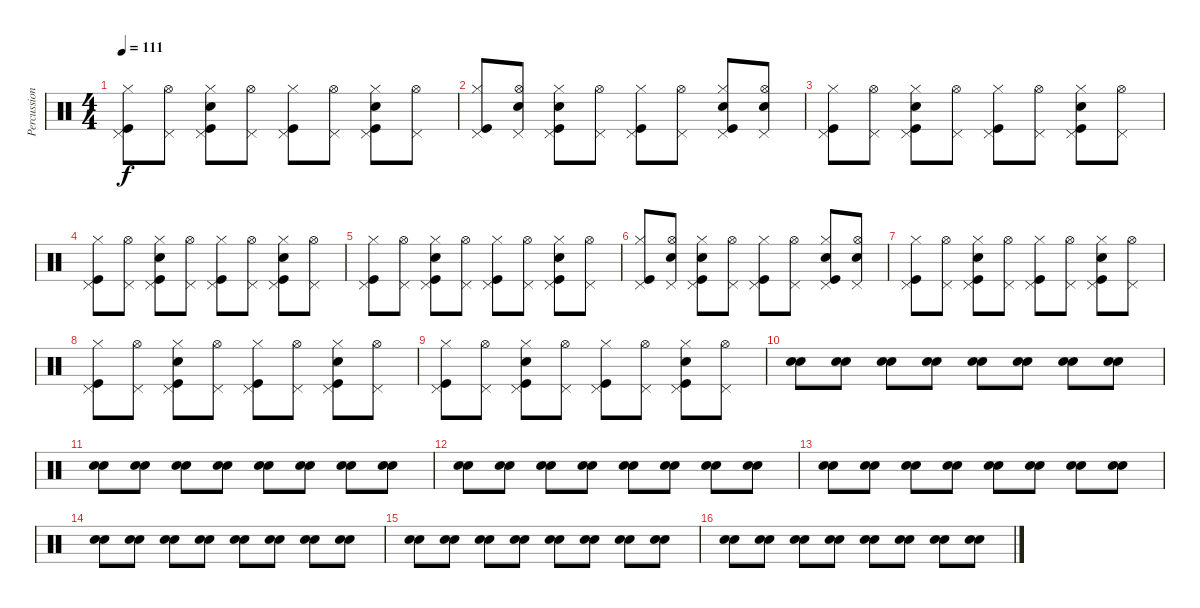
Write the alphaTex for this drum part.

\track ("Percussion" "Percussion") {instrument percussion}
\staff {score}
\articulation defaults
\ts (4 4)
\tempo 111
\clef neutral
\ks c
("Kick (hit)" "Hi-Hat (closed)" "Pedal Hi-Hat (hit)").8{dy f} ("Hi-Hat (open)" "Pedal Hi-Hat (hit)").8 ("Kick (hit)" "Snare (hit) 2" "Hi-Hat (closed)" "Pedal Hi-Hat (hit)").8 ("Hi-Hat (open)" "Pedal Hi-Hat (hit)").8 ("Kick (hit)" "Hi-Hat (closed)" "Pedal Hi-Hat (hit)").8 ("Hi-Hat (open)" "Pedal Hi-Hat (hit)").8 ("Kick (hit)" "Snare (hit) 2" "Hi-Hat (closed)" "Pedal Hi-Hat (hit)").8 ("Hi-Hat (open)" "Pedal Hi-Hat (hit)").8 |
("Kick (hit)" "Hi-Hat (closed)" "Pedal Hi-Hat (hit)").8 ("Snare (hit) 2" "Hi-Hat (open)" "Pedal Hi-Hat (hit)").8 ("Kick (hit)" "Snare (hit) 2" "Hi-Hat (closed)" "Pedal Hi-Hat (hit)").8 ("Hi-Hat (open)" "Pedal Hi-Hat (hit)").8 ("Kick (hit)" "Hi-Hat (closed)" "Pedal Hi-Hat (hit)").8 ("Hi-Hat (open)" "Pedal Hi-Hat (hit)").8 ("Kick (hit)" "Snare (hit) 2" "Hi-Hat (closed)" "Pedal Hi-Hat (hit)").8 ("Snare (hit) 2" "Hi-Hat (open)" "Pedal Hi-Hat (hit)").8 |
("Kick (hit)" "Hi-Hat (closed)" "Pedal Hi-Hat (hit)").8 ("Hi-Hat (open)" "Pedal Hi-Hat (hit)").8 ("Kick (hit)" "Snare (hit) 2" "Hi-Hat (closed)" "Pedal Hi-Hat (hit)").8 ("Hi-Hat (open)" "Pedal Hi-Hat (hit)").8 ("Kick (hit)" "Hi-Hat (closed)" "Pedal Hi-Hat (hit)").8 ("Hi-Hat (open)" "Pedal Hi-Hat (hit)").8 ("Kick (hit)" "Snare (hit) 2" "Hi-Hat (closed)" "Pedal Hi-Hat (hit)").8 ("Hi-Hat (open)" "Pedal Hi-Hat (hit)").8 |
("Kick (hit)" "Hi-Hat (closed)" "Pedal Hi-Hat (hit)").8 ("Hi-Hat (open)" "Pedal Hi-Hat (hit)").8 ("Kick (hit)" "Snare (hit) 2" "Hi-Hat (closed)" "Pedal Hi-Hat (hit)").8 ("Hi-Hat (open)" "Pedal Hi-Hat (hit)").8 ("Kick (hit)" "Hi-Hat (closed)" "Pedal Hi-Hat (hit)").8 ("Hi-Hat (open)" "Pedal Hi-Hat (hit)").8 ("Kick (hit)" "Snare (hit) 2" "Hi-Hat (closed)" "Pedal Hi-Hat (hit)").8 ("Hi-Hat (open)" "Pedal Hi-Hat (hit)").8 |
("Kick (hit)" "Hi-Hat (closed)" "Pedal Hi-Hat (hit)").8 ("Hi-Hat (open)" "Pedal Hi-Hat (hit)").8 ("Kick (hit)" "Snare (hit) 2" "Hi-Hat (closed)" "Pedal Hi-Hat (hit)").8 ("Hi-Hat (open)" "Pedal Hi-Hat (hit)").8 ("Kick (hit)" "Hi-Hat (closed)" "Pedal Hi-Hat (hit)").8 ("Hi-Hat (open)" "Pedal Hi-Hat (hit)").8 ("Kick (hit)" "Snare (hit) 2" "Hi-Hat (closed)" "Pedal Hi-Hat (hit)").8 ("Hi-Hat (open)" "Pedal Hi-Hat (hit)").8 |
("Kick (hit)" "Hi-Hat (closed)" "Pedal Hi-Hat (hit)").8 ("Snare (hit) 2" "Hi-Hat (open)" "Pedal Hi-Hat (hit)").8 ("Kick (hit)" "Snare (hit) 2" "Hi-Hat (closed)" "Pedal Hi-Hat (hit)").8 ("Hi-Hat (open)" "Pedal Hi-Hat (hit)").8 ("Kick (hit)" "Hi-Hat (closed)" "Pedal Hi-Hat (hit)").8 ("Hi-Hat (open)" "Pedal Hi-Hat (hit)").8 ("Kick (hit)" "Snare (hit) 2" "Hi-Hat (closed)" "Pedal Hi-Hat (hit)").8 ("Snare (hit) 2" "Hi-Hat (open)" "Pedal Hi-Hat (hit)").8 |
("Kick (hit)" "Hi-Hat (closed)" "Pedal Hi-Hat (hit)").8 ("Hi-Hat (open)" "Pedal Hi-Hat (hit)").8 ("Kick (hit)" "Snare (hit) 2" "Hi-Hat (closed)" "Pedal Hi-Hat (hit)").8 ("Hi-Hat (open)" "Pedal Hi-Hat (hit)").8 ("Kick (hit)" "Hi-Hat (closed)" "Pedal Hi-Hat (hit)").8 ("Hi-Hat (open)" "Pedal Hi-Hat (hit)").8 ("Kick (hit)" "Snare (hit) 2" "Hi-Hat (closed)" "Pedal Hi-Hat (hit)").8 ("Hi-Hat (open)" "Pedal Hi-Hat (hit)").8 |
("Kick (hit)" "Hi-Hat (closed)" "Pedal Hi-Hat (hit)").8 ("Hi-Hat (open)" "Pedal Hi-Hat (hit)").8 ("Kick (hit)" "Snare (hit) 2" "Hi-Hat (closed)" "Pedal Hi-Hat (hit)").8 ("Hi-Hat (open)" "Pedal Hi-Hat (hit)").8 ("Kick (hit)" "Hi-Hat (closed)" "Pedal Hi-Hat (hit)").8 ("Hi-Hat (open)" "Pedal Hi-Hat (hit)").8 ("Kick (hit)" "Snare (hit) 2" "Hi-Hat (closed)" "Pedal Hi-Hat (hit)").8 ("Hi-Hat (open)" "Pedal Hi-Hat (hit)").8 |
("Kick (hit)" "Hi-Hat (closed)" "Pedal Hi-Hat (hit)").8 ("Hi-Hat (open)" "Pedal Hi-Hat (hit)").8 ("Kick (hit)" "Snare (hit) 2" "Hi-Hat (closed)" "Pedal Hi-Hat (hit)").8 ("Hi-Hat (open)" "Pedal Hi-Hat (hit)").8 ("Kick (hit)" "Hi-Hat (closed)" "Pedal Hi-Hat (hit)").8 ("Hi-Hat (open)" "Pedal Hi-Hat (hit)").8 ("Kick (hit)" "Snare (hit) 2" "Hi-Hat (closed)" "Pedal Hi-Hat (hit)").8 ("Hi-Hat (open)" "Pedal Hi-Hat (hit)").8 |
("Electric Snare (hit)" "Snare (hit) 2").8{volume 7} ("Electric Snare (hit)" "Snare (hit) 2").8 ("Electric Snare (hit)" "Snare (hit) 2").8 ("Electric Snare (hit)" "Snare (hit) 2").8 ("Electric Snare (hit)" "Snare (hit) 2").8 ("Electric Snare (hit)" "Snare (hit) 2").8 ("Electric Snare (hit)" "Snare (hit) 2").8 ("Electric Snare (hit)" "Snare (hit) 2").8 |
("Electric Snare (hit)" "Snare (hit) 2").8 ("Electric Snare (hit)" "Snare (hit) 2").8 ("Electric Snare (hit)" "Snare (hit) 2").8 ("Electric Snare (hit)" "Snare (hit) 2").8 ("Electric Snare (hit)" "Snare (hit) 2").8 ("Electric Snare (hit)" "Snare (hit) 2").8 ("Electric Snare (hit)" "Snare (hit) 2").8 ("Electric Snare (hit)" "Snare (hit) 2").8 |
("Electric Snare (hit)" "Snare (hit) 2").8 ("Electric Snare (hit)" "Snare (hit) 2").8 ("Electric Snare (hit)" "Snare (hit) 2").8 ("Electric Snare (hit)" "Snare (hit) 2").8 ("Electric Snare (hit)" "Snare (hit) 2").8 ("Electric Snare (hit)" "Snare (hit) 2").8 ("Electric Snare (hit)" "Snare (hit) 2").8 ("Electric Snare (hit)" "Snare (hit) 2").8 |
("Electric Snare (hit)" "Snare (hit) 2").8 ("Electric Snare (hit)" "Snare (hit) 2").8 ("Electric Snare (hit)" "Snare (hit) 2").8 ("Electric Snare (hit)" "Snare (hit) 2").8 ("Electric Snare (hit)" "Snare (hit) 2").8 ("Electric Snare (hit)" "Snare (hit) 2").8 ("Electric Snare (hit)" "Snare (hit) 2").8 ("Electric Snare (hit)" "Snare (hit) 2").8 |
("Electric Snare (hit)" "Snare (hit) 2").8{volume 8} ("Electric Snare (hit)" "Snare (hit) 2").8 ("Electric Snare (hit)" "Snare (hit) 2").8 ("Electric Snare (hit)" "Snare (hit) 2").8 ("Electric Snare (hit)" "Snare (hit) 2").8 ("Electric Snare (hit)" "Snare (hit) 2").8 ("Electric Snare (hit)" "Snare (hit) 2").8 ("Electric Snare (hit)" "Snare (hit) 2").8 |
("Electric Snare (hit)" "Snare (hit) 2").8{volume 9} ("Electric Snare (hit)" "Snare (hit) 2").8 ("Electric Snare (hit)" "Snare (hit) 2").8 ("Electric Snare (hit)" "Snare (hit) 2").8 ("Electric Snare (hit)" "Snare (hit) 2").8 ("Electric Snare (hit)" "Snare (hit) 2").8 ("Electric Snare (hit)" "Snare (hit) 2").8 ("Electric Snare (hit)" "Snare (hit) 2").8 |
("Electric Snare (hit)" "Snare (hit) 2").8{volume 10} ("Electric Snare (hit)" "Snare (hit) 2").8 ("Electric Snare (hit)" "Snare (hit) 2").8 ("Electric Snare (hit)" "Snare (hit) 2").8 ("Electric Snare (hit)" "Snare (hit) 2").8{volume 11} ("Electric Snare (hit)" "Snare (hit) 2").8 ("Electric Snare (hit)" "Snare (hit) 2").8 ("Electric Snare (hit)" "Snare (hit) 2").8
